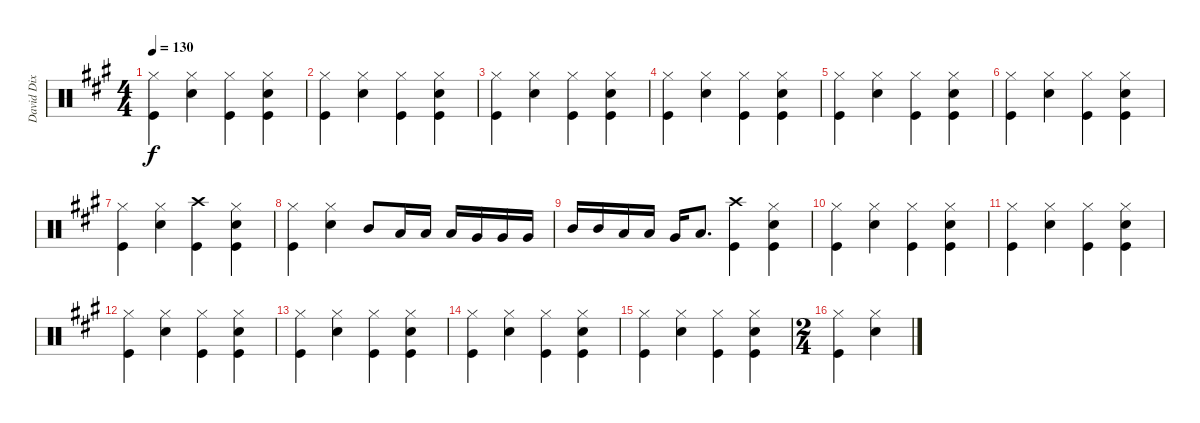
\track ("David Dix Drums" "David Dix ") {instrument percussion}
\staff {score}
\articulation defaults
\ts (4 4)
\tempo 130
\clef neutral
\ks f#minor
("Hi-Hat (closed)" "Kick (hit)").4{dy f} ("Hi-Hat (closed)" "Snare (hit) 2").4 ("Hi-Hat (closed)" "Kick (hit)").4 ("Hi-Hat (closed)" "Snare (hit) 2" "Kick (hit)").4 |
("Hi-Hat (closed)" "Kick (hit)").4 ("Hi-Hat (closed)" "Snare (hit) 2").4 ("Hi-Hat (closed)" "Kick (hit)").4 ("Hi-Hat (closed)" "Snare (hit) 2" "Kick (hit)").4 |
("Hi-Hat (closed)" "Kick (hit)").4 ("Hi-Hat (closed)" "Snare (hit) 2").4 ("Hi-Hat (closed)" "Kick (hit)").4 ("Hi-Hat (closed)" "Snare (hit) 2" "Kick (hit)").4 |
("Hi-Hat (closed)" "Kick (hit)").4 ("Hi-Hat (closed)" "Snare (hit) 2").4 ("Hi-Hat (closed)" "Kick (hit)").4 ("Hi-Hat (closed)" "Snare (hit) 2" "Kick (hit)").4 |
("Hi-Hat (closed)" "Kick (hit)").4 ("Hi-Hat (closed)" "Snare (hit) 2").4 ("Hi-Hat (closed)" "Kick (hit)").4 ("Hi-Hat (closed)" "Snare (hit) 2" "Kick (hit)").4 |
("Hi-Hat (closed)" "Kick (hit)").4 ("Hi-Hat (closed)" "Snare (hit) 2").4 ("Hi-Hat (closed)" "Kick (hit)").4 ("Hi-Hat (closed)" "Snare (hit) 2" "Kick (hit)").4 |
("Hi-Hat (closed)" "Kick (hit)").4 ("Hi-Hat (closed)" "Snare (hit) 2").4 ("Crash high (hit)" "Kick (hit)").4 ("Hi-Hat (closed)" "Snare (hit) 2" "Kick (hit)").4 |
("Hi-Hat (closed)" "Kick (hit)").4 ("Hi-Hat (closed)" "Snare (hit) 2").4 "Mid Tom (hit)".8 "Low Tom (hit)".16 "Low Tom (hit)".16 "Low Tom (hit)".16 "Very Low Tom (hit)".16 "Very Low Tom (hit)".16 "Very Low Tom (hit)".16 |
"Mid Tom (hit)".16 "Mid Tom (hit)".16 "Low Tom (hit)".16 "Low Tom (hit)".16 "Very Low Tom (hit)".16 "Low Floor Tom (hit)".8{d} ("Crash high (hit)" "Kick (hit)").4 ("Hi-Hat (closed)" "Snare (hit) 2" "Kick (hit)").4 |
("Hi-Hat (closed)" "Kick (hit)").4 ("Hi-Hat (closed)" "Snare (hit) 2").4 ("Hi-Hat (closed)" "Kick (hit)").4 ("Hi-Hat (closed)" "Snare (hit) 2" "Kick (hit)").4 |
("Hi-Hat (closed)" "Kick (hit)").4 ("Hi-Hat (closed)" "Snare (hit) 2").4 ("Hi-Hat (closed)" "Kick (hit)").4 ("Hi-Hat (closed)" "Snare (hit) 2" "Kick (hit)").4 |
("Hi-Hat (closed)" "Kick (hit)").4 ("Hi-Hat (closed)" "Snare (hit) 2").4 ("Hi-Hat (closed)" "Kick (hit)").4 ("Hi-Hat (closed)" "Snare (hit) 2" "Kick (hit)").4 |
("Hi-Hat (closed)" "Kick (hit)").4 ("Hi-Hat (closed)" "Snare (hit) 2").4 ("Hi-Hat (closed)" "Kick (hit)").4 ("Hi-Hat (closed)" "Snare (hit) 2" "Kick (hit)").4 |
("Hi-Hat (closed)" "Kick (hit)").4 ("Hi-Hat (closed)" "Snare (hit) 2").4 ("Hi-Hat (closed)" "Kick (hit)").4 ("Hi-Hat (closed)" "Snare (hit) 2" "Kick (hit)").4 |
("Hi-Hat (closed)" "Kick (hit)").4 ("Hi-Hat (closed)" "Snare (hit) 2").4 ("Hi-Hat (closed)" "Kick (hit)").4 ("Hi-Hat (closed)" "Snare (hit) 2" "Kick (hit)").4 |
\ts (2 4)
("Hi-Hat (closed)" "Kick (hit)").4 ("Hi-Hat (closed)" "Snare (hit) 2").4
